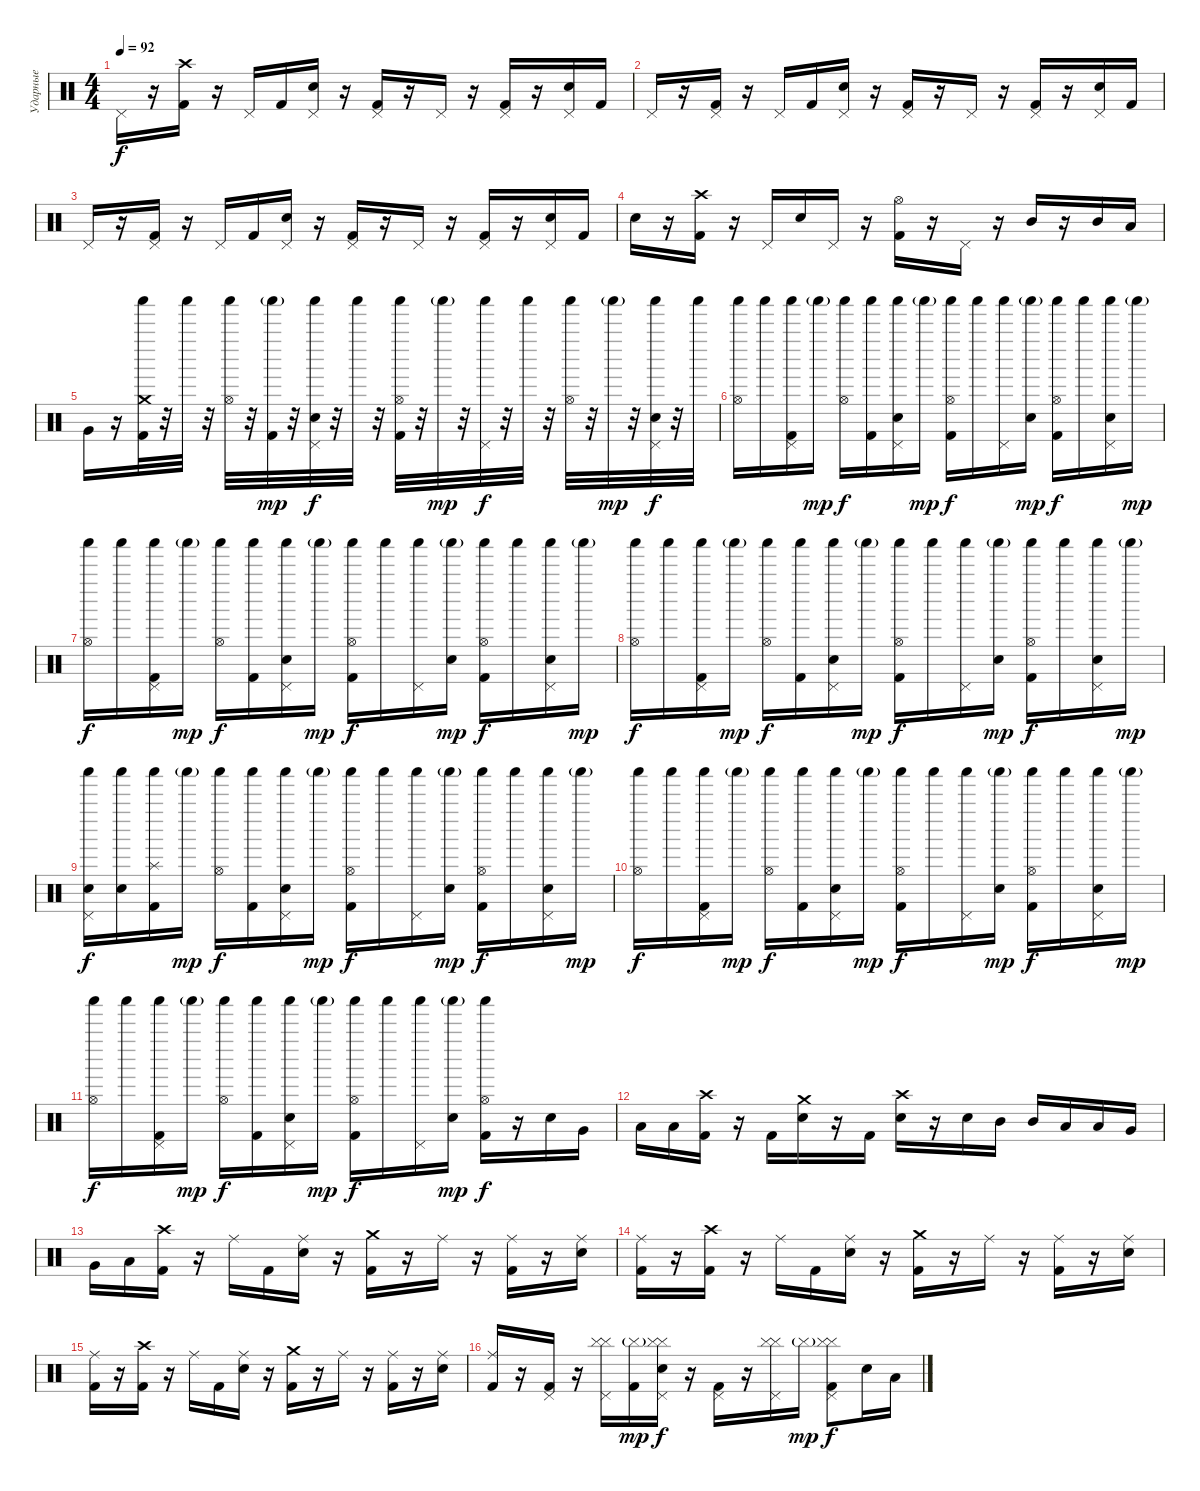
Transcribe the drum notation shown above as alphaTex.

\track ("Ударные" "Ударные") {instrument percussion}
\staff {score}
\articulation defaults
\ts (4 4)
\tempo 92
\clef neutral
\ks c "Pedal Hi-Hat (hit)".16{dy f}
r.16 ("Crash high (hit)" "Kick (hit) 2").16 r.16 "Pedal Hi-Hat (hit)".16 "Kick (hit) 2".16 ("Pedal Hi-Hat (hit)" "Electric Snare (hit)").16 r.16 ("Pedal Hi-Hat (hit)" "Kick (hit) 2").16 r.16 "Pedal Hi-Hat (hit)".16 r.16 ("Pedal Hi-Hat (hit)" "Kick (hit) 2").16 r.16 ("Pedal Hi-Hat (hit)" "Electric Snare (hit)").16 "Kick (hit) 2".16 |
"Pedal Hi-Hat (hit)".16 r.16 ("Pedal Hi-Hat (hit)" "Kick (hit) 2").16 r.16 "Pedal Hi-Hat (hit)".16 "Kick (hit) 2".16 ("Pedal Hi-Hat (hit)" "Electric Snare (hit)").16 r.16 ("Pedal Hi-Hat (hit)" "Kick (hit) 2").16 r.16 "Pedal Hi-Hat (hit)".16 r.16 ("Pedal Hi-Hat (hit)" "Kick (hit) 2").16 r.16 ("Pedal Hi-Hat (hit)" "Electric Snare (hit)").16 "Kick (hit) 2".16 |
"Pedal Hi-Hat (hit)".16 r.16 ("Pedal Hi-Hat (hit)" "Kick (hit) 2").16 r.16 "Pedal Hi-Hat (hit)".16 "Kick (hit) 2".16 ("Pedal Hi-Hat (hit)" "Electric Snare (hit)").16 r.16 ("Pedal Hi-Hat (hit)" "Kick (hit) 2").16 r.16 "Pedal Hi-Hat (hit)".16 r.16 ("Pedal Hi-Hat (hit)" "Kick (hit) 2").16 r.16 ("Pedal Hi-Hat (hit)" "Electric Snare (hit)").16 "Kick (hit) 2".16 |
"Electric Snare (hit)".16 r.16 ("Crash high (hit)" "Kick (hit) 2").16 r.16 "Pedal Hi-Hat (hit)".16 "Electric Snare (hit)".16 "Pedal Hi-Hat (hit)".16 r.16 ("Hi-Hat (open)" "Kick (hit) 2").16 r.16 "Pedal Hi-Hat (hit)".16 r.16 "Mid Tom (hit)".16 r.16 "Mid Tom (hit)".16 "Low Tom (hit)".16 |
"Very Low Tom (hit)".16 r.16 ("Crash medium (hit)" "Shaker (hit)" "Kick (hit) 2").32 r.32 "Shaker (hit)".32 r.32 ("Hi-Hat (open)" "Shaker (hit)").32 r.32 ("Shaker (hit)"{g} "Kick (hit) 2").32{dy mp} r.32 ("Pedal Hi-Hat (hit)" "Shaker (hit)" "Electric Snare (hit)").32{dy f} r.32 "Shaker (hit)".32 r.32 ("Hi-Hat (open)" "Shaker (hit)" "Kick (hit) 2").32 r.32 "Shaker (hit)"{g}.32{dy mp} r.32 ("Pedal Hi-Hat (hit)" "Shaker (hit)").32{dy f} r.32 "Shaker (hit)".32 r.32 ("Hi-Hat (open)" "Shaker (hit)").32 r.32 "Shaker (hit)"{g}.32{dy mp} r.32 ("Pedal Hi-Hat (hit)" "Shaker (hit)" "Electric Snare (hit)").32{dy f} r.32 "Shaker (hit)".32 |
("Hi-Hat (open)" "Shaker (hit)").16 "Shaker (hit)".16 ("Pedal Hi-Hat (hit)" "Shaker (hit)" "Kick (hit) 2").16 "Shaker (hit)"{g}.16{dy mp} ("Hi-Hat (open)" "Shaker (hit)").16{dy f} ("Shaker (hit)" "Kick (hit) 2").16 ("Pedal Hi-Hat (hit)" "Shaker (hit)" "Electric Snare (hit)").16 "Shaker (hit)"{g}.16{dy mp} ("Hi-Hat (open)" "Shaker (hit)" "Kick (hit) 2").16{dy f} "Shaker (hit)".16 ("Pedal Hi-Hat (hit)" "Shaker (hit)").16 ("Shaker (hit)"{g} "Electric Snare (hit)").16{dy mp} ("Hi-Hat (open)" "Shaker (hit)" "Kick (hit) 2").16{dy f} "Shaker (hit)".16 ("Pedal Hi-Hat (hit)" "Shaker (hit)" "Electric Snare (hit)").16 "Shaker (hit)"{g}.16{dy mp} |
("Hi-Hat (open)" "Shaker (hit)").16{dy f} "Shaker (hit)".16 ("Pedal Hi-Hat (hit)" "Shaker (hit)" "Kick (hit) 2").16 "Shaker (hit)"{g}.16{dy mp} ("Hi-Hat (open)" "Shaker (hit)").16{dy f} ("Shaker (hit)" "Kick (hit) 2").16 ("Pedal Hi-Hat (hit)" "Shaker (hit)" "Electric Snare (hit)").16 "Shaker (hit)"{g}.16{dy mp} ("Hi-Hat (open)" "Shaker (hit)" "Kick (hit) 2").16{dy f} "Shaker (hit)".16 ("Pedal Hi-Hat (hit)" "Shaker (hit)").16 ("Shaker (hit)"{g} "Electric Snare (hit)").16{dy mp} ("Hi-Hat (open)" "Shaker (hit)" "Kick (hit) 2").16{dy f} "Shaker (hit)".16 ("Pedal Hi-Hat (hit)" "Shaker (hit)" "Electric Snare (hit)").16 "Shaker (hit)"{g}.16{dy mp} |
("Hi-Hat (open)" "Shaker (hit)").16{dy f} "Shaker (hit)".16 ("Pedal Hi-Hat (hit)" "Shaker (hit)" "Kick (hit) 2").16 "Shaker (hit)"{g}.16{dy mp} ("Hi-Hat (open)" "Shaker (hit)").16{dy f} ("Shaker (hit)" "Kick (hit) 2").16 ("Pedal Hi-Hat (hit)" "Shaker (hit)" "Electric Snare (hit)").16 "Shaker (hit)"{g}.16{dy mp} ("Hi-Hat (open)" "Shaker (hit)" "Kick (hit) 2").16{dy f} "Shaker (hit)".16 ("Pedal Hi-Hat (hit)" "Shaker (hit)").16 ("Shaker (hit)"{g} "Electric Snare (hit)").16{dy mp} ("Hi-Hat (open)" "Shaker (hit)" "Kick (hit) 2").16{dy f} "Shaker (hit)".16 ("Pedal Hi-Hat (hit)" "Shaker (hit)" "Electric Snare (hit)").16 "Shaker (hit)"{g}.16{dy mp} |
("Pedal Hi-Hat (hit)" "Shaker (hit)" "Electric Snare (hit)").16{dy f} ("Shaker (hit)" "Electric Snare (hit)").16 ("Splash (hit)" "Shaker (hit)" "Kick (hit) 2").16 "Shaker (hit)"{g}.16{dy mp} ("Hi-Hat (open)" "Shaker (hit)").16{dy f} ("Shaker (hit)" "Kick (hit) 2").16 ("Pedal Hi-Hat (hit)" "Shaker (hit)" "Electric Snare (hit)").16 "Shaker (hit)"{g}.16{dy mp} ("Hi-Hat (open)" "Shaker (hit)" "Kick (hit) 2").16{dy f} "Shaker (hit)".16 ("Pedal Hi-Hat (hit)" "Shaker (hit)").16 ("Shaker (hit)"{g} "Electric Snare (hit)").16{dy mp} ("Hi-Hat (open)" "Shaker (hit)" "Kick (hit) 2").16{dy f} "Shaker (hit)".16 ("Pedal Hi-Hat (hit)" "Shaker (hit)" "Electric Snare (hit)").16 "Shaker (hit)"{g}.16{dy mp} |
("Hi-Hat (open)" "Shaker (hit)").16{dy f} "Shaker (hit)".16 ("Pedal Hi-Hat (hit)" "Shaker (hit)" "Kick (hit) 2").16 "Shaker (hit)"{g}.16{dy mp} ("Hi-Hat (open)" "Shaker (hit)").16{dy f} ("Shaker (hit)" "Kick (hit) 2").16 ("Pedal Hi-Hat (hit)" "Shaker (hit)" "Electric Snare (hit)").16 "Shaker (hit)"{g}.16{dy mp} ("Hi-Hat (open)" "Shaker (hit)" "Kick (hit) 2").16{dy f} "Shaker (hit)".16 ("Pedal Hi-Hat (hit)" "Shaker (hit)").16 ("Shaker (hit)"{g} "Electric Snare (hit)").16{dy mp} ("Hi-Hat (open)" "Shaker (hit)" "Kick (hit) 2").16{dy f} "Shaker (hit)".16 ("Pedal Hi-Hat (hit)" "Shaker (hit)" "Electric Snare (hit)").16 "Shaker (hit)"{g}.16{dy mp} |
("Hi-Hat (open)" "Shaker (hit)").16{dy f} "Shaker (hit)".16 ("Pedal Hi-Hat (hit)" "Shaker (hit)" "Kick (hit) 2").16 "Shaker (hit)"{g}.16{dy mp} ("Hi-Hat (open)" "Shaker (hit)").16{dy f} ("Shaker (hit)" "Kick (hit) 2").16 ("Pedal Hi-Hat (hit)" "Shaker (hit)" "Electric Snare (hit)").16 "Shaker (hit)"{g}.16{dy mp} ("Hi-Hat (open)" "Shaker (hit)" "Kick (hit) 2").16{dy f} "Shaker (hit)".16 ("Pedal Hi-Hat (hit)" "Shaker (hit)").16 ("Shaker (hit)"{g} "Electric Snare (hit)").16{dy mp} ("Hi-Hat (open)" "Shaker (hit)" "Kick (hit) 2").16{dy f} r.16 "Electric Snare (hit)".16 "Very Low Tom (hit)".16 |
"Low Tom (hit)".16 "Low Tom (hit)".16 ("Crash high (hit)" "Kick (hit) 2").16 r.16 "Kick (hit) 2".16 ("Crash medium (hit)" "Electric Snare (hit)").16 r.16 "Kick (hit) 2".16 ("Crash high (hit)" "Electric Snare (hit)").16 r.16 "Electric Snare (hit)".16 "Mid Tom (hit)".16 "Mid Tom (hit)".16 "Low Tom (hit)".16 "Low Tom (hit)".16 "Very Low Tom (hit)".16 |
"Very Low Tom (hit)".16 "Low Floor Tom (hit)".16 ("Crash high (hit)" "Kick (hit) 2").16 r.16 "Ride (middle)".16 "Kick (hit) 2".16 ("Ride (middle)" "Electric Snare (hit)").16 r.16 ("Crash medium (hit)" "Kick (hit) 2").16 r.16 "Ride (middle)".16 r.16 ("Ride (middle)" "Kick (hit) 2").16 r.16 ("Ride (middle)" "Electric Snare (hit)").16 |
("Ride (middle)" "Kick (hit) 2").16 r.16 ("Crash high (hit)" "Kick (hit) 2").16 r.16 "Ride (middle)".16 "Kick (hit) 2".16 ("Ride (middle)" "Electric Snare (hit)").16 r.16 ("Crash medium (hit)" "Kick (hit) 2").16 r.16 "Ride (middle)".16 r.16 ("Ride (middle)" "Kick (hit) 2").16 r.16 ("Ride (middle)" "Electric Snare (hit)").16 |
("Ride (middle)" "Kick (hit) 2").16 r.16 ("Crash high (hit)" "Kick (hit) 2").16 r.16 "Ride (middle)".16 "Kick (hit) 2".16 ("Ride (middle)" "Electric Snare (hit)").16 r.16 ("Crash medium (hit)" "Kick (hit) 2").16 r.16 "Ride (middle)".16 r.16 ("Ride (middle)" "Kick (hit) 2").16 r.16 ("Ride (middle)" "Electric Snare (hit)").16 |
("Ride (middle)" "Kick (hit) 2").16 r.16 ("Pedal Hi-Hat (hit)" "Kick (hit) 2").16 r.16 ("Pedal Hi-Hat (hit)" "Cymbal (hit)" "Cymbal (hit)").16 ("Cymbal (hit)"{g} "Kick (hit) 2").16{dy mp} ("Pedal Hi-Hat (hit)" "Electric Snare (hit)" "Cymbal (hit)" "Cymbal (hit)").16{dy f} r.16 ("Pedal Hi-Hat (hit)" "Kick (hit) 2").16 r.16 ("Pedal Hi-Hat (hit)" "Cymbal (hit)" "Cymbal (hit)").16 "Cymbal (hit)"{g}.16{dy mp} ("Pedal Hi-Hat (hit)" "Cymbal (hit)" "Cymbal (hit)" "Kick (hit) 2").8{dy f} "Electric Snare (hit)".16 "Low Tom (hit)".16
